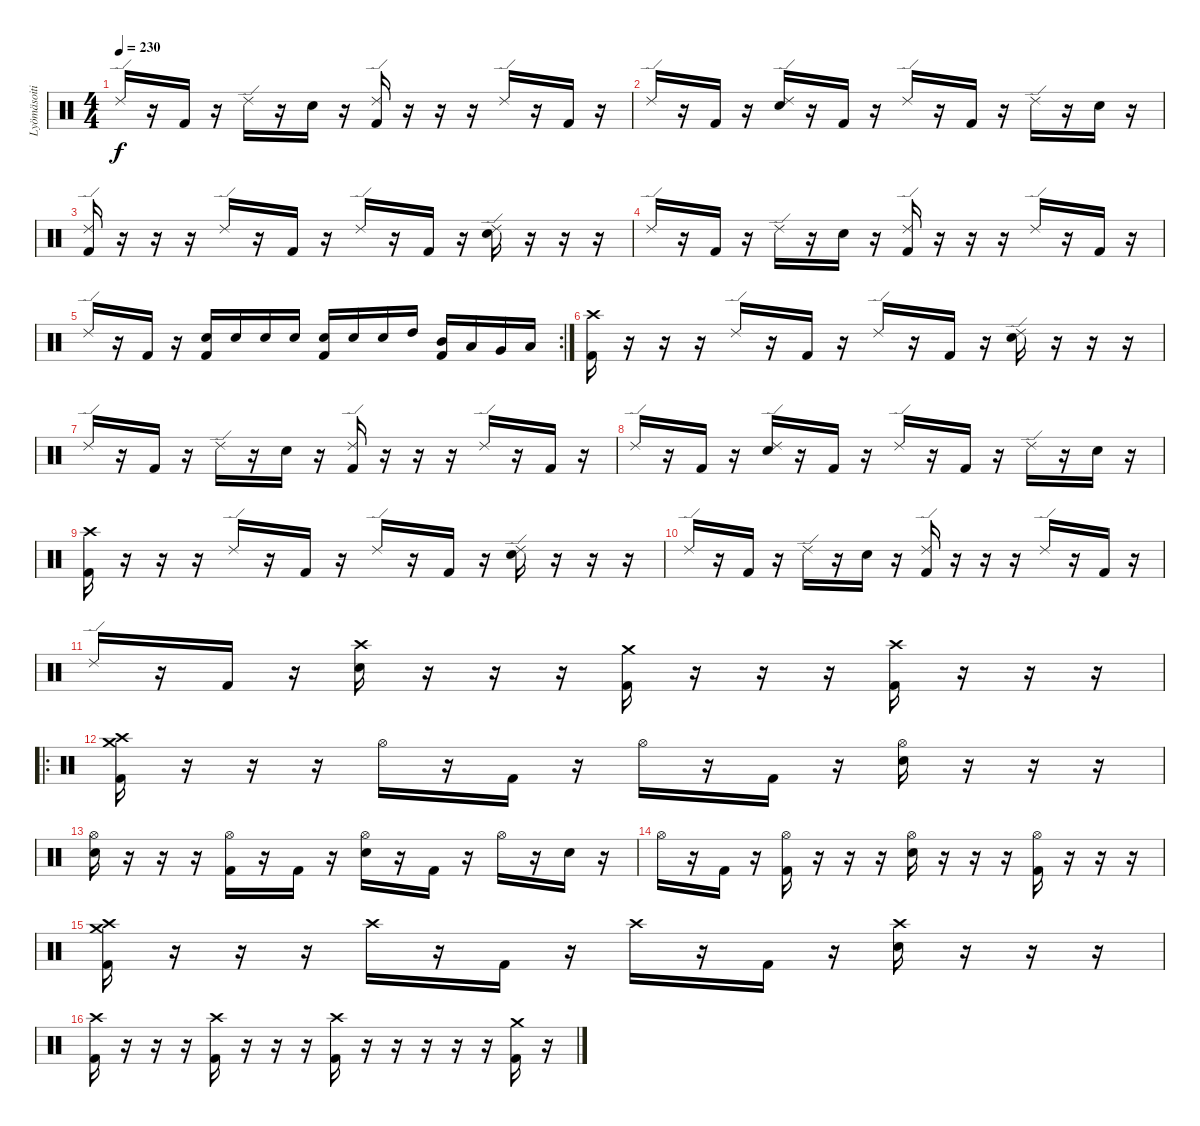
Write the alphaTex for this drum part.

\track ("Lyömäsoitin" "Lyömäsoiti") {instrument percussion}
\staff {score}
\articulation defaults
\ts (4 4)
\tempo 230
\clef neutral
\ks c "Ride (edge) 2".16{dy f}
r.16 "Kick (hit) 2".16 r.16 "Ride (edge) 2".16 r.16 "Snare (hit) 2".16 r.16 ("Ride (edge) 2" "Kick (hit) 2").16 r.16 r.16 r.16 "Ride (edge) 2".16 r.16 "Kick (hit) 2".16 r.16 |
"Ride (edge) 2".16 r.16 "Kick (hit) 2".16 r.16 ("Ride (edge) 2" "Snare (hit) 2").16 r.16 "Kick (hit) 2".16 r.16 "Ride (edge) 2".16 r.16 "Kick (hit) 2".16 r.16 "Ride (edge) 2".16 r.16 "Snare (hit) 2".16 r.16 |
("Ride (edge) 2" "Kick (hit) 2").16 r.16 r.16 r.16 "Ride (edge) 2".16 r.16 "Kick (hit) 2".16 r.16 "Ride (edge) 2".16 r.16 "Kick (hit) 2".16 r.16 ("Ride (edge) 2" "Snare (hit) 2").16 r.16 r.16 r.16 |
"Ride (edge) 2".16 r.16 "Kick (hit) 2".16 r.16 "Ride (edge) 2".16 r.16 "Snare (hit) 2".16 r.16 ("Ride (edge) 2" "Kick (hit) 2").16 r.16 r.16 r.16 "Ride (edge) 2".16 r.16 "Kick (hit) 2".16 r.16 |
\rc 2 "Ride (edge) 2".16
r.16 "Kick (hit) 2".16 r.16 ("Snare (hit) 2" "Kick (hit) 2").16 "Snare (hit) 2".16 "Snare (hit) 2".16 "Snare (hit) 2".16 ("Snare (hit) 2" "Kick (hit) 2").16 "Snare (hit) 2".16 "Snare (hit) 2".16 "High Tom (hit)".16 ("Mid Tom (hit)" "Kick (hit) 2").16 "Low Tom (hit)".16 "Very Low Tom (hit)".16 "Low Floor Tom (hit)".16 |
("Crash high (hit)" "Kick (hit) 2").16 r.16 r.16 r.16 "Ride (edge) 2".16 r.16 "Kick (hit) 2".16 r.16 "Ride (edge) 2".16 r.16 "Kick (hit) 2".16 r.16 ("Ride (edge) 2" "Snare (hit) 2").16 r.16 r.16 r.16 |
"Ride (edge) 2".16 r.16 "Kick (hit) 2".16 r.16 "Ride (edge) 2".16 r.16 "Snare (hit) 2".16 r.16 ("Ride (edge) 2" "Kick (hit) 2").16 r.16 r.16 r.16 "Ride (edge) 2".16 r.16 "Kick (hit) 2".16 r.16 |
"Ride (edge) 2".16 r.16 "Kick (hit) 2".16 r.16 ("Ride (edge) 2" "Snare (hit) 2").16 r.16 "Kick (hit) 2".16 r.16 "Ride (edge) 2".16 r.16 "Kick (hit) 2".16 r.16 "Ride (edge) 2".16 r.16 "Snare (hit) 2".16 r.16 |
("Crash high (hit)" "Kick (hit) 2").16 r.16 r.16 r.16 "Ride (edge) 2".16 r.16 "Kick (hit) 2".16 r.16 "Ride (edge) 2".16 r.16 "Kick (hit) 2".16 r.16 ("Ride (edge) 2" "Snare (hit) 2").16 r.16 r.16 r.16 |
"Ride (edge) 2".16 r.16 "Kick (hit) 2".16 r.16 "Ride (edge) 2".16 r.16 "Snare (hit) 2".16 r.16 ("Ride (edge) 2" "Kick (hit) 2").16 r.16 r.16 r.16 "Ride (edge) 2".16 r.16 "Kick (hit) 2".16 r.16 |
"Ride (edge) 2".16 r.16 "Kick (hit) 2".16 r.16 ("Crash high (hit)" "Snare (hit) 2").16 r.16 r.16 r.16 ("Crash medium (hit)" "Kick (hit) 2").16 r.16 r.16 r.16 ("Crash high (hit)" "Kick (hit) 2").16 r.16 r.16 r.16 |
\ro
("Crash high (hit)" "Crash medium (hit)" "Kick (hit) 2").16 r.16 r.16 r.16 "Hi-Hat (open)".16 r.16 "Kick (hit) 2".16 r.16 "Hi-Hat (open)".16 r.16 "Kick (hit) 2".16 r.16 ("Hi-Hat (open)" "Snare (hit) 2").16 r.16 r.16 r.16 |
("Hi-Hat (open)" "Snare (hit) 2").16 r.16 r.16 r.16 ("Hi-Hat (open)" "Kick (hit) 2").16 r.16 "Kick (hit) 2".16 r.16 ("Hi-Hat (open)" "Snare (hit) 2").16 r.16 "Kick (hit) 2".16 r.16 "Hi-Hat (open)".16 r.16 "Snare (hit) 2".16 r.16 |
"Hi-Hat (open)".16 r.16 "Kick (hit) 2".16 r.16 ("Hi-Hat (open)" "Kick (hit) 2").16 r.16 r.16 r.16 ("Hi-Hat (open)" "Snare (hit) 2").16 r.16 r.16 r.16 ("Hi-Hat (open)" "Kick (hit) 2").16 r.16 r.16 r.16 |
("Crash medium (hit)" "Crash high (hit)" "Kick (hit) 2").16 r.16 r.16 r.16 "Crash high (hit)".16 r.16 "Kick (hit) 2".16 r.16 "Crash high (hit)".16 r.16 "Kick (hit) 2".16 r.16 ("Crash high (hit)" "Snare (hit) 2").16 r.16 r.16 r.16 |
("Crash high (hit)" "Kick (hit) 2").16 r.16 r.16 r.16 ("Crash high (hit)" "Kick (hit) 2").16 r.16 r.16 r.16 ("Crash high (hit)" "Kick (hit) 2").16 r.16 r.16 r.16 r.16 r.16 ("Crash medium (hit)" "Kick (hit) 2").16 r.16
